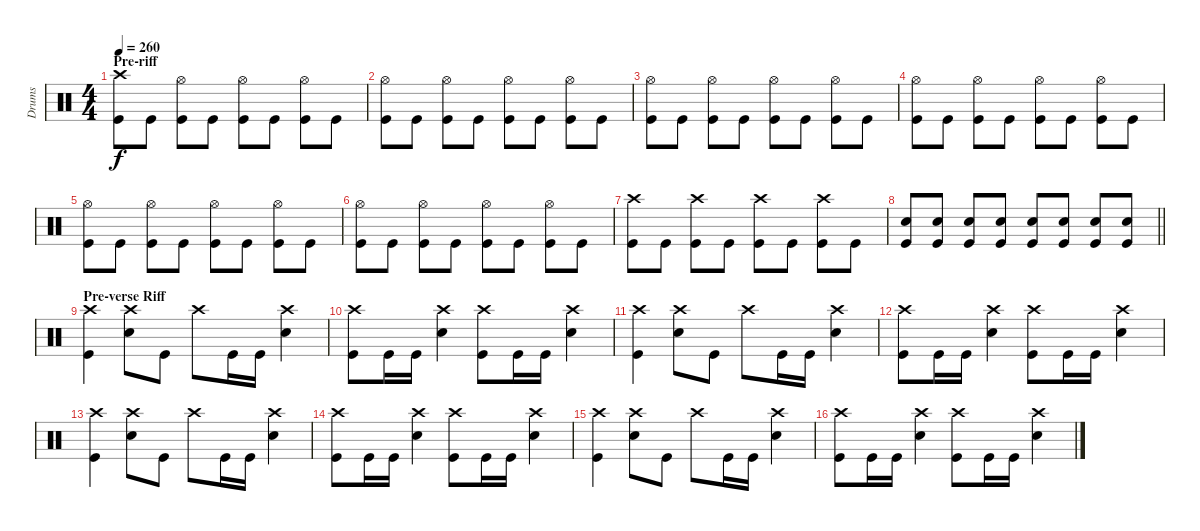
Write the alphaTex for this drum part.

\track ("Drums" "Drums") {instrument percussion}
\staff {score}
\articulation defaults
\ts (4 4)
\section ("" "Pre-riff")
\tempo 260
\clef neutral
\ks c
("Kick (hit)" "Crash high (hit)").8{dy f} "Kick (hit)".8 ("Kick (hit)" "Hi-Hat (open)").8 "Kick (hit)".8 ("Kick (hit)" "Hi-Hat (open)").8 "Kick (hit)".8 ("Kick (hit)" "Hi-Hat (open)").8 "Kick (hit)".8 |
("Kick (hit)" "Hi-Hat (open)").8 "Kick (hit)".8 ("Kick (hit)" "Hi-Hat (open)").8 "Kick (hit)".8 ("Kick (hit)" "Hi-Hat (open)").8 "Kick (hit)".8 ("Kick (hit)" "Hi-Hat (open)").8 "Kick (hit)".8 |
("Kick (hit)" "Hi-Hat (open)").8 "Kick (hit)".8 ("Kick (hit)" "Hi-Hat (open)").8 "Kick (hit)".8 ("Kick (hit)" "Hi-Hat (open)").8 "Kick (hit)".8 ("Kick (hit)" "Hi-Hat (open)").8 "Kick (hit)".8 |
("Kick (hit)" "Hi-Hat (open)").8 "Kick (hit)".8 ("Kick (hit)" "Hi-Hat (open)").8 "Kick (hit)".8 ("Kick (hit)" "Hi-Hat (open)").8 "Kick (hit)".8 ("Kick (hit)" "Hi-Hat (open)").8 "Kick (hit)".8 |
("Kick (hit)" "Hi-Hat (open)").8 "Kick (hit)".8 ("Kick (hit)" "Hi-Hat (open)").8 "Kick (hit)".8 ("Kick (hit)" "Hi-Hat (open)").8 "Kick (hit)".8 ("Kick (hit)" "Hi-Hat (open)").8 "Kick (hit)".8 |
("Kick (hit)" "Hi-Hat (open)").8 "Kick (hit)".8 ("Kick (hit)" "Hi-Hat (open)").8 "Kick (hit)".8 ("Kick (hit)" "Hi-Hat (open)").8 "Kick (hit)".8 ("Kick (hit)" "Hi-Hat (open)").8 "Kick (hit)".8 |
("Kick (hit)" "Crash high (hit)").8 "Kick (hit)".8 ("Kick (hit)" "Crash high (hit)").8 "Kick (hit)".8 ("Kick (hit)" "Crash high (hit)").8 "Kick (hit)".8 ("Kick (hit)" "Crash high (hit)").8 "Kick (hit)".8 |
\barLineRight lightlight
("Kick (hit)" "Snare (hit) 2").8 ("Kick (hit)" "Snare (hit) 2").8 ("Kick (hit)" "Snare (hit) 2").8 ("Kick (hit)" "Snare (hit) 2").8 ("Kick (hit)" "Snare (hit) 2").8 ("Kick (hit)" "Snare (hit) 2").8 ("Kick (hit)" "Snare (hit) 2").8 ("Kick (hit)" "Snare (hit) 2").8 |
\section ("" "Pre-verse Riff")
("Kick (hit)" "Crash high (hit)").4 ("Snare (hit) 2" "Crash high (hit)").8 "Kick (hit)".8 "Crash high (hit)".8 "Kick (hit)".16 "Kick (hit)".16 ("Snare (hit) 2" "Crash high (hit)").4 |
("Kick (hit)" "Crash high (hit)").8 "Kick (hit)".16 "Kick (hit)".16 ("Snare (hit) 2" "Crash high (hit)").4 ("Kick (hit)" "Crash high (hit)").8 "Kick (hit)".16 "Kick (hit)".16 ("Snare (hit) 2" "Crash high (hit)").4 |
("Kick (hit)" "Crash high (hit)").4 ("Snare (hit) 2" "Crash high (hit)").8 "Kick (hit)".8 "Crash high (hit)".8 "Kick (hit)".16 "Kick (hit)".16 ("Snare (hit) 2" "Crash high (hit)").4 |
("Kick (hit)" "Crash high (hit)").8 "Kick (hit)".16 "Kick (hit)".16 ("Snare (hit) 2" "Crash high (hit)").4 ("Kick (hit)" "Crash high (hit)").8 "Kick (hit)".16 "Kick (hit)".16 ("Snare (hit) 2" "Crash high (hit)").4 |
("Kick (hit)" "Crash high (hit)").4 ("Snare (hit) 2" "Crash high (hit)").8 "Kick (hit)".8 "Crash high (hit)".8 "Kick (hit)".16 "Kick (hit)".16 ("Snare (hit) 2" "Crash high (hit)").4 |
("Kick (hit)" "Crash high (hit)").8 "Kick (hit)".16 "Kick (hit)".16 ("Snare (hit) 2" "Crash high (hit)").4 ("Kick (hit)" "Crash high (hit)").8 "Kick (hit)".16 "Kick (hit)".16 ("Snare (hit) 2" "Crash high (hit)").4 |
("Kick (hit)" "Crash high (hit)").4 ("Snare (hit) 2" "Crash high (hit)").8 "Kick (hit)".8 "Crash high (hit)".8 "Kick (hit)".16 "Kick (hit)".16 ("Snare (hit) 2" "Crash high (hit)").4 |
("Kick (hit)" "Crash high (hit)").8 "Kick (hit)".16 "Kick (hit)".16 ("Snare (hit) 2" "Crash high (hit)").4 ("Kick (hit)" "Crash high (hit)").8 "Kick (hit)".16 "Kick (hit)".16 ("Snare (hit) 2" "Crash high (hit)").4
